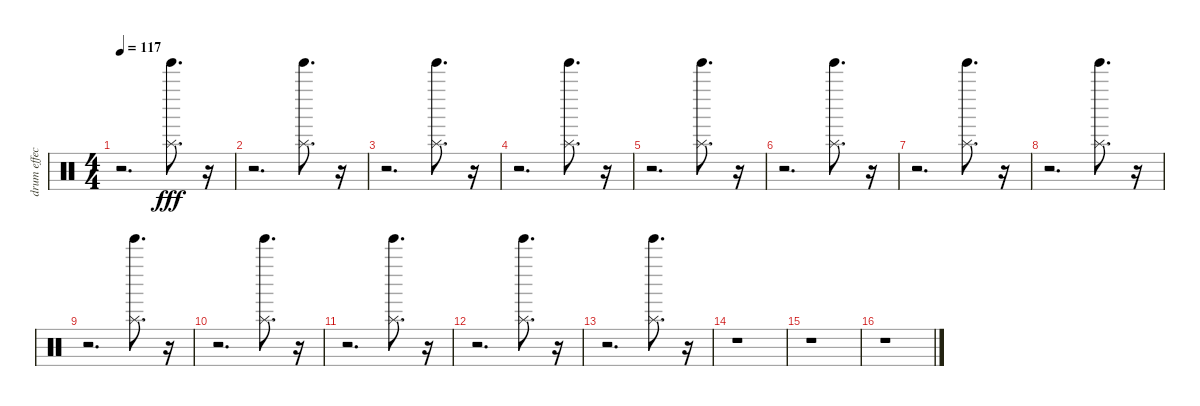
\track ("drum effect" "drum effec") {instrument percussion}
\staff {score}
\articulation defaults
\ts (4 4)
\tempo 117
\clef neutral
\ks c
r.2{d dy fff} ("Splash (hit)" "Tinkle Bell (hit)").8{d} r.16 |
r.2{d} ("Splash (hit)" "Tinkle Bell (hit)").8{d} r.16 |
r.2{d} ("Splash (hit)" "Tinkle Bell (hit)").8{d} r.16 |
r.2{d} ("Splash (hit)" "Tinkle Bell (hit)").8{d} r.16 |
r.2{d} ("Splash (hit)" "Tinkle Bell (hit)").8{d} r.16 |
r.2{d} ("Splash (hit)" "Tinkle Bell (hit)").8{d} r.16 |
r.2{d} ("Splash (hit)" "Tinkle Bell (hit)").8{d} r.16 |
r.2{d} ("Splash (hit)" "Tinkle Bell (hit)").8{d} r.16 |
r.2{d} ("Splash (hit)" "Tinkle Bell (hit)").8{d} r.16 |
r.2{d} ("Splash (hit)" "Tinkle Bell (hit)").8{d} r.16 |
r.2{d} ("Splash (hit)" "Tinkle Bell (hit)").8{d} r.16 |
r.2{d} ("Splash (hit)" "Tinkle Bell (hit)").8{d} r.16 |
r.2{d} ("Splash (hit)" "Tinkle Bell (hit)").8{d} r.16 |
r.1 |
r.1 |
r.1
